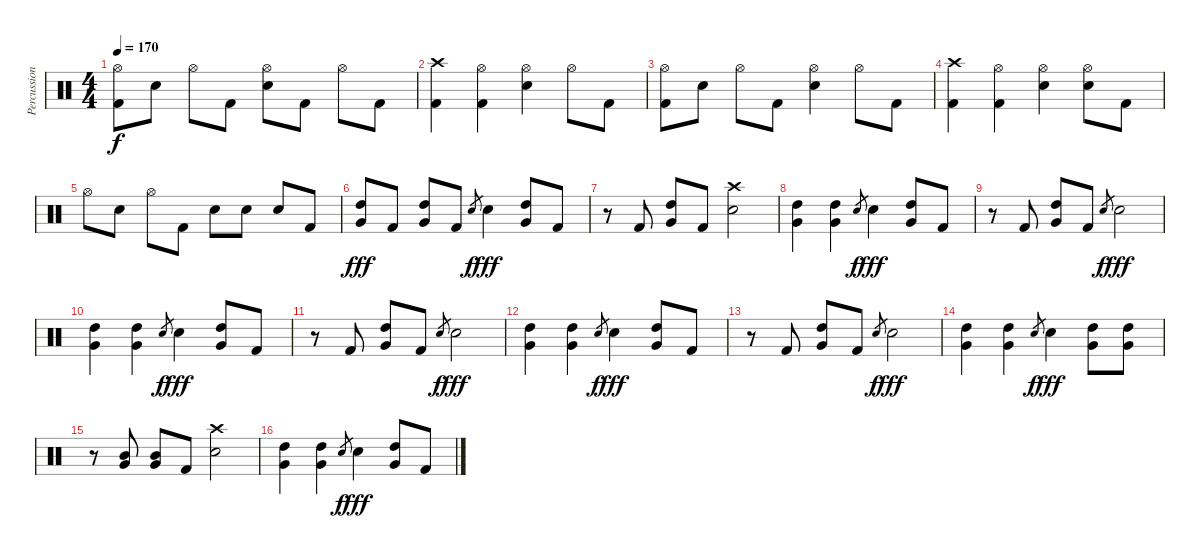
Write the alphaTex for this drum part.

\track ("Percussion" "Percussion") {instrument percussion}
\staff {score}
\articulation defaults
\ts (4 4)
\tempo 170
\clef neutral
\ks c
("Kick (hit) 2" "Hi-Hat (open)").8{dy f} "Snare (hit) 2".8 "Hi-Hat (open)".8 "Kick (hit) 2".8 ("Snare (hit) 2" "Hi-Hat (open)").8 "Kick (hit) 2".8 "Hi-Hat (open)".8 "Kick (hit) 2".8 |
("Crash high (hit)" "Kick (hit) 2").4 ("Kick (hit) 2" "Hi-Hat (open)").4 ("Snare (hit) 2" "Hi-Hat (open)").4 "Hi-Hat (open)".8 "Kick (hit) 2".8 |
("Kick (hit) 2" "Hi-Hat (open)").8 "Snare (hit) 2".8 "Hi-Hat (open)".8 "Kick (hit) 2".8 ("Snare (hit) 2" "Hi-Hat (open)").4 "Hi-Hat (open)".8 "Kick (hit) 2".8 |
("Crash high (hit)" "Kick (hit) 2").4 ("Hi-Hat (open)" "Kick (hit) 2").4 ("Hi-Hat (open)" "Snare (hit) 2").4 ("Hi-Hat (open)" "Snare (hit) 2").8 "Kick (hit) 2".8 |
"Hi-Hat (open)".8 "Snare (hit) 2".8 "Hi-Hat (open)".8 "Kick (hit) 2".8 "Snare (hit) 2".8 "Snare (hit) 2".8 "Snare (hit) 2".8 "Kick (hit) 2".8 |
("High Tom (hit)" "Very Low Tom (hit)").8{dy fff} "Kick (hit) 2".8 ("High Tom (hit)" "Very Low Tom (hit)").8 "Kick (hit) 2".8 "Snare (hit) 2".8{gr dy f} "Snare (hit) 2".4{dy fff} ("High Tom (hit)" "Very Low Tom (hit)").8 "Kick (hit) 2".8 |
r.8 "Kick (hit) 2".8 ("High Tom (hit)" "Very Low Tom (hit)").8 "Kick (hit) 2".8 ("Snare (hit) 2" "Crash high (hit)").2 |
("High Tom (hit)" "Very Low Tom (hit)").4 ("High Tom (hit)" "Very Low Tom (hit)").4 "Snare (hit) 2".8{gr dy f} "Snare (hit) 2".4{dy fff} ("High Tom (hit)" "Very Low Tom (hit)").8 "Kick (hit) 2".8 |
r.8 "Kick (hit) 2".8 ("High Tom (hit)" "Very Low Tom (hit)").8 "Kick (hit) 2".8 "Snare (hit) 2".8{gr dy f} "Snare (hit) 2".2{dy fff} |
("High Tom (hit)" "Very Low Tom (hit)").4 ("High Tom (hit)" "Very Low Tom (hit)").4 "Snare (hit) 2".8{gr dy f} "Snare (hit) 2".4{dy fff} ("High Tom (hit)" "Very Low Tom (hit)").8 "Kick (hit) 2".8 |
r.8 "Kick (hit) 2".8 ("High Tom (hit)" "Very Low Tom (hit)").8 "Kick (hit) 2".8 "Snare (hit) 2".8{gr dy f} "Snare (hit) 2".2{dy fff} |
("High Tom (hit)" "Very Low Tom (hit)").4 ("High Tom (hit)" "Very Low Tom (hit)").4 "Snare (hit) 2".8{gr dy f} "Snare (hit) 2".4{dy fff} ("High Tom (hit)" "Very Low Tom (hit)").8 "Kick (hit) 2".8 |
r.8 "Kick (hit) 2".8 ("High Tom (hit)" "Very Low Tom (hit)").8 "Kick (hit) 2".8 "Snare (hit) 2".8{gr dy f} "Snare (hit) 2".2{dy fff} |
("High Tom (hit)" "Very Low Tom (hit)").4 ("High Tom (hit)" "Very Low Tom (hit)").4 "Snare (hit) 2".8{gr dy f} "Snare (hit) 2".4{dy fff} ("High Tom (hit)" "Very Low Tom (hit)").8 ("High Tom (hit)" "Very Low Tom (hit)").8 |
r.8 ("Mid Tom (hit)" "Very Low Tom (hit)").8 ("Mid Tom (hit)" "Very Low Tom (hit)").8 "Kick (hit) 2".8 ("Snare (hit) 2" "Crash high (hit)").2 |
("High Tom (hit)" "Very Low Tom (hit)").4 ("High Tom (hit)" "Very Low Tom (hit)").4 "Snare (hit) 2".8{gr dy f} "Snare (hit) 2".4{dy fff} ("High Tom (hit)" "Very Low Tom (hit)").8 "Kick (hit) 2".8
